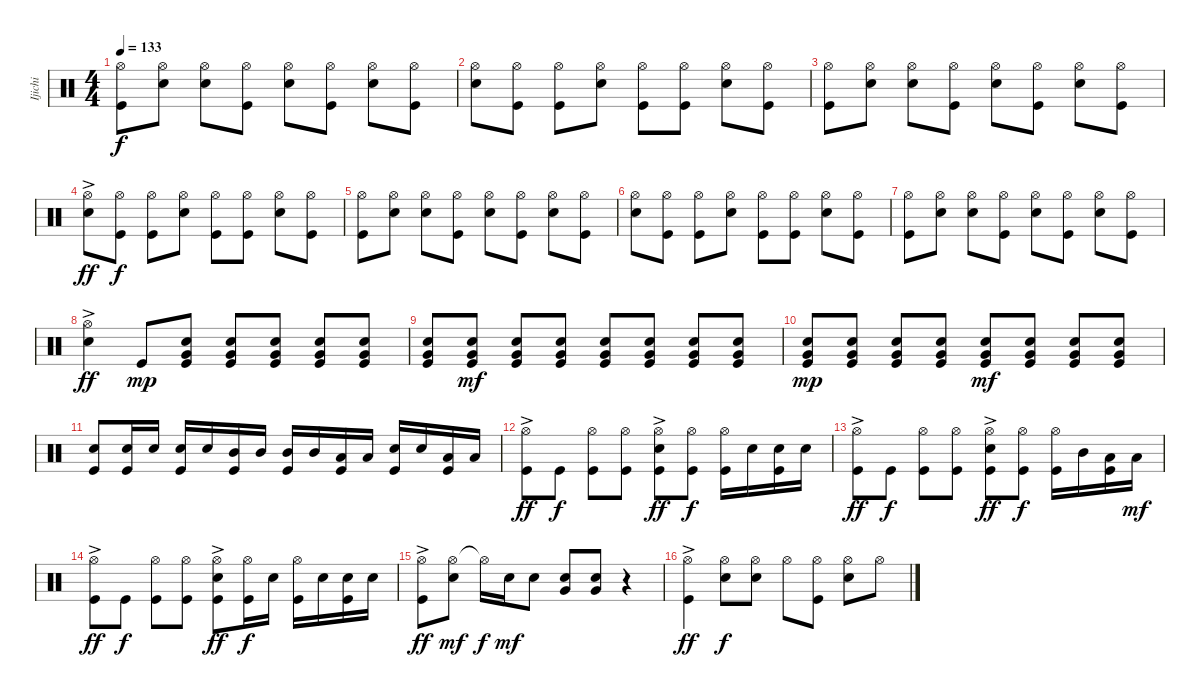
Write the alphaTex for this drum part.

\track ("Ijichi" "Ijichi") {instrument percussion}
\staff {score}
\articulation defaults
\ts (4 4)
\tempo 133
\clef neutral
\ks c
("Hi-Hat (open)" "Kick (hit)").8{dy f} ("Hi-Hat (open)" "Snare (hit) 2").8 ("Hi-Hat (open)" "Snare (hit) 2").8 ("Hi-Hat (open)" "Kick (hit)").8 ("Hi-Hat (open)" "Snare (hit) 2").8 ("Hi-Hat (open)" "Kick (hit)").8 ("Hi-Hat (open)" "Snare (hit) 2").8 ("Hi-Hat (open)" "Kick (hit)").8 |
("Hi-Hat (open)" "Snare (hit) 2").8 ("Hi-Hat (open)" "Kick (hit)").8 ("Hi-Hat (open)" "Kick (hit)").8 ("Hi-Hat (open)" "Snare (hit) 2").8 ("Hi-Hat (open)" "Kick (hit)").8 ("Hi-Hat (open)" "Kick (hit)").8 ("Hi-Hat (open)" "Snare (hit) 2").8 ("Hi-Hat (open)" "Kick (hit)").8 |
("Hi-Hat (open)" "Kick (hit)").8 ("Hi-Hat (open)" "Snare (hit) 2").8 ("Hi-Hat (open)" "Snare (hit) 2").8 ("Hi-Hat (open)" "Kick (hit)").8 ("Hi-Hat (open)" "Snare (hit) 2").8 ("Hi-Hat (open)" "Kick (hit)").8 ("Hi-Hat (open)" "Snare (hit) 2").8 ("Hi-Hat (open)" "Kick (hit)").8 |
("Hi-Hat (open)"{ac} "Snare (hit) 2").8{dy ff} ("Hi-Hat (open)" "Kick (hit)").8{dy f} ("Hi-Hat (open)" "Kick (hit)").8 ("Hi-Hat (open)" "Snare (hit) 2").8 ("Hi-Hat (open)" "Kick (hit)").8 ("Hi-Hat (open)" "Kick (hit)").8 ("Hi-Hat (open)" "Snare (hit) 2").8 ("Hi-Hat (open)" "Kick (hit)").8 |
("Hi-Hat (open)" "Kick (hit)").8 ("Hi-Hat (open)" "Snare (hit) 2").8 ("Hi-Hat (open)" "Snare (hit) 2").8 ("Hi-Hat (open)" "Kick (hit)").8 ("Hi-Hat (open)" "Snare (hit) 2").8 ("Hi-Hat (open)" "Kick (hit)").8 ("Hi-Hat (open)" "Snare (hit) 2").8 ("Hi-Hat (open)" "Kick (hit)").8 |
("Hi-Hat (open)" "Snare (hit) 2").8 ("Hi-Hat (open)" "Kick (hit)").8 ("Hi-Hat (open)" "Kick (hit)").8 ("Hi-Hat (open)" "Snare (hit) 2").8 ("Hi-Hat (open)" "Kick (hit)").8 ("Hi-Hat (open)" "Kick (hit)").8 ("Hi-Hat (open)" "Snare (hit) 2").8 ("Hi-Hat (open)" "Kick (hit)").8 |
("Hi-Hat (open)" "Kick (hit)").8 ("Hi-Hat (open)" "Snare (hit) 2").8 ("Hi-Hat (open)" "Snare (hit) 2").8 ("Hi-Hat (open)" "Kick (hit)").8 ("Hi-Hat (open)" "Snare (hit) 2").8 ("Hi-Hat (open)" "Kick (hit)").8 ("Hi-Hat (open)" "Snare (hit) 2").8 ("Hi-Hat (open)" "Kick (hit)").8 |
("Hi-Hat (open)"{ac} "Snare (hit) 2").4{dy ff} "Kick (hit)".8{dy mp} ("Snare (hit) 2" "Very Low Tom (hit)" "Kick (hit)").8 ("Snare (hit) 2" "Very Low Tom (hit)" "Kick (hit)").8 ("Snare (hit) 2" "Very Low Tom (hit)" "Kick (hit)").8 ("Snare (hit) 2" "Very Low Tom (hit)" "Kick (hit)").8 ("Snare (hit) 2" "Very Low Tom (hit)" "Kick (hit)").8 |
("Snare (hit) 2" "Very Low Tom (hit)" "Kick (hit)").8 ("Snare (hit) 2" "Very Low Tom (hit)" "Kick (hit)").8{dy mf} ("Snare (hit) 2" "Very Low Tom (hit)" "Kick (hit)").8 ("Snare (hit) 2" "Very Low Tom (hit)" "Kick (hit)").8 ("Snare (hit) 2" "Very Low Tom (hit)" "Kick (hit)").8 ("Snare (hit) 2" "Very Low Tom (hit)" "Kick (hit)").8 ("Snare (hit) 2" "Very Low Tom (hit)" "Kick (hit)").8 ("Snare (hit) 2" "Very Low Tom (hit)" "Kick (hit)").8 |
("Snare (hit) 2" "Very Low Tom (hit)" "Kick (hit)").8{dy mp} ("Snare (hit) 2" "Very Low Tom (hit)" "Kick (hit)").8 ("Snare (hit) 2" "Very Low Tom (hit)" "Kick (hit)").8 ("Snare (hit) 2" "Very Low Tom (hit)" "Kick (hit)").8 ("Snare (hit) 2" "Very Low Tom (hit)" "Kick (hit)").8{dy mf} ("Snare (hit) 2" "Very Low Tom (hit)" "Kick (hit)").8 ("Snare (hit) 2" "Very Low Tom (hit)" "Kick (hit)").8 ("Snare (hit) 2" "Very Low Tom (hit)" "Kick (hit)").8 |
("Snare (hit) 2" "Kick (hit)").8 ("Snare (hit) 2" "Kick (hit)").16 "Snare (hit) 2".16 ("Snare (hit) 2" "Kick (hit)").16 "Snare (hit) 2".16 ("Mid Tom (hit)" "Kick (hit)").16 "Mid Tom (hit)".16 ("Mid Tom (hit)" "Kick (hit)").16 "Mid Tom (hit)".16 ("Low Tom (hit)" "Kick (hit)").16 "Low Tom (hit)".16 ("Snare (hit) 2" "Kick (hit)").16 "Snare (hit) 2".16 ("Low Tom (hit)" "Kick (hit)").16 "Low Tom (hit)".16 |
("Hi-Hat (open)"{ac} "Kick (hit)").8{dy ff} "Kick (hit)".8{dy f} ("Hi-Hat (open)" "Kick (hit)").8 ("Hi-Hat (open)" "Kick (hit)").8 ("Hi-Hat (open)"{ac} "Snare (hit) 2" "Kick (hit)").8{dy ff} ("Hi-Hat (open)" "Kick (hit)").8{dy f} ("Hi-Hat (open)" "Kick (hit)").16 "Snare (hit) 2".16 ("Snare (hit) 2" "Kick (hit)").16 "Snare (hit) 2".16 |
("Hi-Hat (open)"{ac} "Kick (hit)").8{dy ff} "Kick (hit)".8{dy f} ("Hi-Hat (open)" "Kick (hit)").8 ("Hi-Hat (open)" "Kick (hit)").8 ("Hi-Hat (open)"{ac} "Snare (hit) 2" "Kick (hit)").8{dy ff} ("Hi-Hat (open)" "Kick (hit)").8{dy f} ("Hi-Hat (open)" "Kick (hit)").16 "Mid Tom (hit)".16 ("Low Tom (hit)" "Kick (hit)").16 "Low Tom (hit)".16{dy mf} |
("Hi-Hat (open)"{ac} "Kick (hit)").8{dy ff} "Kick (hit)".8{dy f} ("Hi-Hat (open)" "Kick (hit)").8 ("Hi-Hat (open)" "Kick (hit)").8 ("Hi-Hat (open)"{ac} "Snare (hit) 2" "Kick (hit)").8{dy ff} ("Hi-Hat (open)" "Kick (hit)").16{dy f} "Snare (hit) 2".16 ("Hi-Hat (open)" "Kick (hit)").16 "Snare (hit) 2".16 ("Snare (hit) 2" "Kick (hit)").16 "Snare (hit) 2".16 |
("Hi-Hat (open)"{ac} "Kick (hit)").8{dy ff} ("Hi-Hat (open)" "Snare (hit) 2").8{dy mf} "Hi-Hat (open)"{t}.16{dy f} "Snare (hit) 2".16{dy mf} "Snare (hit) 2".8 ("Snare (hit) 2" "Very Low Tom (hit)").8 ("Snare (hit) 2" "Very Low Tom (hit)").8 r.4 |
("Hi-Hat (open)"{ac} "Kick (hit)").4{dy ff} ("Hi-Hat (open)" "Snare (hit) 2").8{dy f} ("Hi-Hat (open)" "Snare (hit) 2").8 "Hi-Hat (open)".8 ("Hi-Hat (open)" "Kick (hit)").8 ("Hi-Hat (open)" "Snare (hit) 2").8 "Hi-Hat (open)".8
